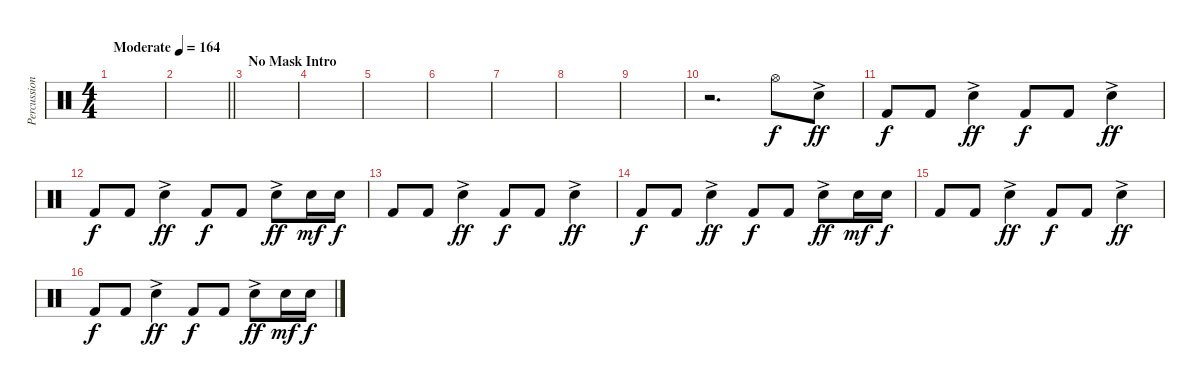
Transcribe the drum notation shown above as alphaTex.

\track ("Percussion" "Percussion") {instrument percussion}
\staff {score}
\articulation defaults
\ts (4 4)
\tempo (164 "Moderate")
\clef neutral
\ks c
|
\barLineRight lightlight
|
\section ("" "No Mask Intro")
|
|
|
|
|
|
|
r.2{d} "Hi-Hat (open)".8 "Electric Snare (hit)"{ac}.8{dy ff} |
"Kick (hit) 2".8{dy f} "Kick (hit) 2".8 "Electric Snare (hit)"{ac}.4{dy ff} "Kick (hit) 2".8{dy f} "Kick (hit) 2".8 "Electric Snare (hit)"{ac}.4{dy ff} |
"Kick (hit) 2".8{dy f} "Kick (hit) 2".8 "Electric Snare (hit)"{ac}.4{dy ff} "Kick (hit) 2".8{dy f} "Kick (hit) 2".8 "Electric Snare (hit)"{ac}.8{dy ff} "Electric Snare (hit)".16{dy mf} "Electric Snare (hit)".16{dy f} |
"Kick (hit) 2".8 "Kick (hit) 2".8 "Electric Snare (hit)"{ac}.4{dy ff} "Kick (hit) 2".8{dy f} "Kick (hit) 2".8 "Electric Snare (hit)"{ac}.4{dy ff} |
"Kick (hit) 2".8{dy f} "Kick (hit) 2".8 "Electric Snare (hit)"{ac}.4{dy ff} "Kick (hit) 2".8{dy f} "Kick (hit) 2".8 "Electric Snare (hit)"{ac}.8{dy ff} "Electric Snare (hit)".16{dy mf} "Electric Snare (hit)".16{dy f} |
"Kick (hit) 2".8 "Kick (hit) 2".8 "Electric Snare (hit)"{ac}.4{dy ff} "Kick (hit) 2".8{dy f} "Kick (hit) 2".8 "Electric Snare (hit)"{ac}.4{dy ff} |
"Kick (hit) 2".8{dy f} "Kick (hit) 2".8 "Electric Snare (hit)"{ac}.4{dy ff} "Kick (hit) 2".8{dy f} "Kick (hit) 2".8 "Electric Snare (hit)"{ac}.8{dy ff} "Electric Snare (hit)".16{dy mf} "Electric Snare (hit)".16{dy f}
